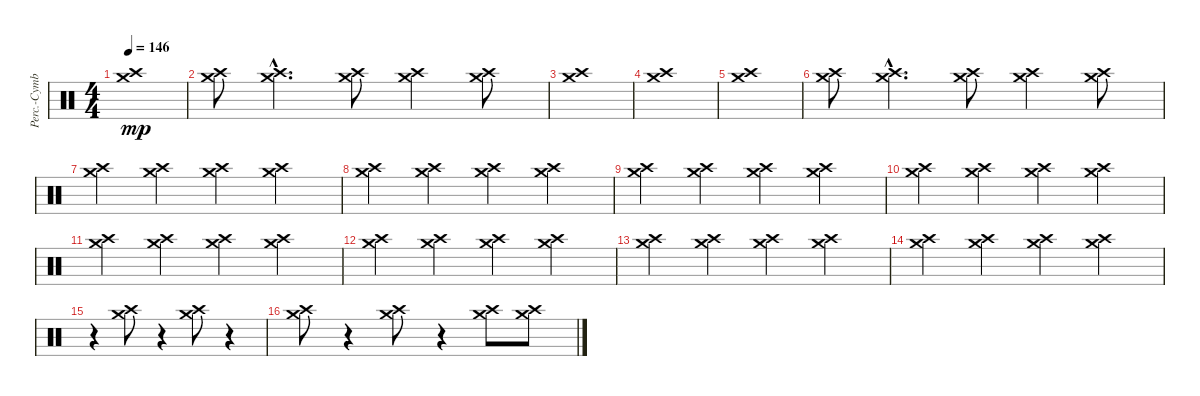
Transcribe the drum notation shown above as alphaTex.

\track ("Perc.-Cymbals" "Perc.-Cymb") {instrument percussion}
\staff {score}
\articulation defaults
\ts (4 4)
\tempo 146
\clef neutral
\ks c
("Crash high (hit)" "Crash medium (hit)").1{dy mp} |
("Crash high (hit)" "Crash medium (hit)").8 ("Crash high (hit)"{hac} "Crash medium (hit)"{hac}).4{d} ("Crash high (hit)" "Crash medium (hit)").8 ("Crash high (hit)" "Crash medium (hit)").4 ("Crash high (hit)" "Crash medium (hit)").8 |
("Crash high (hit)" "Crash medium (hit)").1 |
("Crash high (hit)" "Crash medium (hit)").1 |
("Crash high (hit)" "Crash medium (hit)").1 |
("Crash high (hit)" "Crash medium (hit)").8 ("Crash high (hit)"{hac} "Crash medium (hit)"{hac}).4{d} ("Crash high (hit)" "Crash medium (hit)").8 ("Crash high (hit)" "Crash medium (hit)").4 ("Crash high (hit)" "Crash medium (hit)").8 |
("Crash high (hit)" "Crash medium (hit)").4 ("Crash high (hit)" "Crash medium (hit)").4 ("Crash high (hit)" "Crash medium (hit)").4 ("Crash high (hit)" "Crash medium (hit)").4 |
("Crash high (hit)" "Crash medium (hit)").4 ("Crash high (hit)" "Crash medium (hit)").4 ("Crash high (hit)" "Crash medium (hit)").4 ("Crash high (hit)" "Crash medium (hit)").4 |
("Crash high (hit)" "Crash medium (hit)").4 ("Crash high (hit)" "Crash medium (hit)").4 ("Crash high (hit)" "Crash medium (hit)").4 ("Crash high (hit)" "Crash medium (hit)").4 |
("Crash high (hit)" "Crash medium (hit)").4 ("Crash high (hit)" "Crash medium (hit)").4 ("Crash high (hit)" "Crash medium (hit)").4 ("Crash high (hit)" "Crash medium (hit)").4 |
("Crash high (hit)" "Crash medium (hit)").4 ("Crash high (hit)" "Crash medium (hit)").4 ("Crash high (hit)" "Crash medium (hit)").4 ("Crash high (hit)" "Crash medium (hit)").4 |
("Crash high (hit)" "Crash medium (hit)").4 ("Crash high (hit)" "Crash medium (hit)").4 ("Crash high (hit)" "Crash medium (hit)").4 ("Crash high (hit)" "Crash medium (hit)").4 |
("Crash high (hit)" "Crash medium (hit)").4 ("Crash high (hit)" "Crash medium (hit)").4 ("Crash high (hit)" "Crash medium (hit)").4 ("Crash high (hit)" "Crash medium (hit)").4 |
("Crash high (hit)" "Crash medium (hit)").4 ("Crash high (hit)" "Crash medium (hit)").4 ("Crash high (hit)" "Crash medium (hit)").4 ("Crash high (hit)" "Crash medium (hit)").4 |
r.4 ("Crash high (hit)" "Crash medium (hit)").8 r.4 ("Crash high (hit)" "Crash medium (hit)").8 r.4 |
("Crash high (hit)" "Crash medium (hit)").8 r.4 ("Crash high (hit)" "Crash medium (hit)").8 r.4 ("Crash high (hit)" "Crash medium (hit)").8 ("Crash high (hit)" "Crash medium (hit)").8
